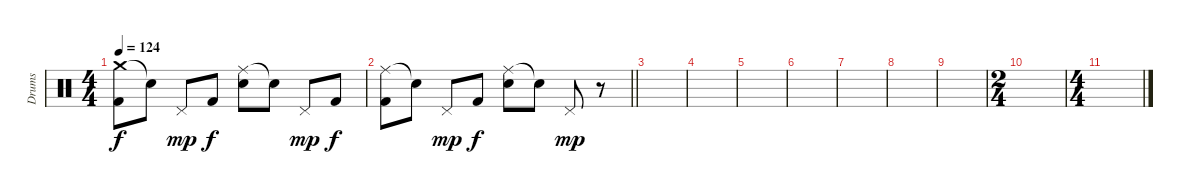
\track ("Drums" "Drums") {instrument percussion}
\staff {score}
\articulation defaults
\ts (4 4)
\tempo 124
\clef neutral
\ks c
("Crash medium (hit)" "Kick (hit) 2").8{dy f} "Snare (hit)"{t}.8 "Pedal Hi-Hat (hit)".8{dy mp} "Kick (hit) 2".8{dy f} ("Ride (middle)" "Electric Snare (hit)").8 "Snare (hit)"{t}.8 "Pedal Hi-Hat (hit)".8{dy mp} "Kick (hit) 2".8{dy f} |
\barLineRight lightlight
("Ride (middle)" "Kick (hit) 2").8 "Snare (hit)"{t}.8 "Pedal Hi-Hat (hit)".8{dy mp} "Kick (hit) 2".8{dy f} ("Ride (middle)" "Electric Snare (hit)").8 "Snare (hit)"{t}.8 "Pedal Hi-Hat (hit)".8{dy mp} r.8 |
|
|
|
|
|
|
|
\ts (2 4)
|
\ts (4 4)
